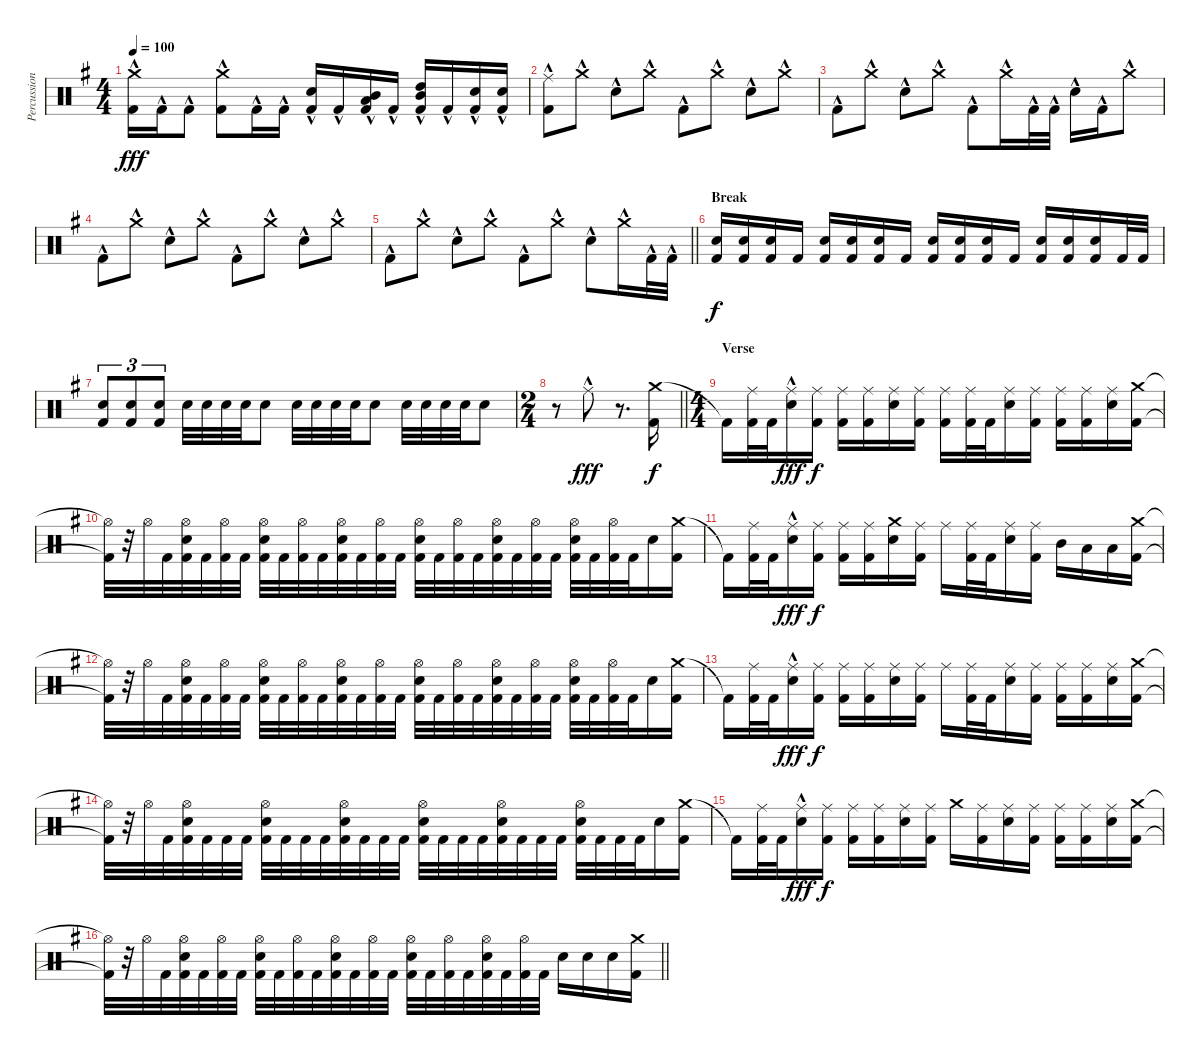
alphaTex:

\track ("Percussion" "Percussion") {instrument percussion}
\staff {score}
\articulation defaults
\ts (4 4)
\tempo 100
\clef neutral
\ks eminor
("Crash medium (hit)"{hac} "Kick (hit) 2"{hac}).16{dy fff} "Kick (hit) 2"{hac}.16 "Kick (hit) 2"{hac}.8 ("Crash medium (hit)"{hac} "Kick (hit) 2"{hac}).8 "Kick (hit) 2"{hac}.16 "Kick (hit) 2"{hac}.16 ("Snare (hit) 2"{hac} "Kick (hit) 2"{hac}).16 "Kick (hit) 2"{hac}.16 ("Mid Tom (hit)"{hac} "Low Tom (hit)"{hac} "Kick (hit) 2"{hac}).16 "Kick (hit) 2"{hac}.16 ("High Tom (hit)"{hac} "Mid Tom (hit)"{hac} "Kick (hit) 2"{hac}).16 "Kick (hit) 2"{hac}.16 ("Snare (hit) 2"{hac} "Kick (hit) 2"{hac}).16 ("Snare (hit) 2"{hac} "Kick (hit) 2"{hac}).16 |
("Ride (middle)"{hac} "Kick (hit) 2"{hac}).8 "Crash medium (hit)"{hac}.8 "Snare (hit) 2"{hac}.8 "Crash medium (hit)"{hac}.8 "Kick (hit) 2"{hac}.8 "Crash medium (hit)"{hac}.8 "Snare (hit) 2"{hac}.8 "Crash medium (hit)"{hac}.8 |
"Kick (hit) 2"{hac}.8 "Crash medium (hit)"{hac}.8 "Snare (hit) 2"{hac}.8 "Crash medium (hit)"{hac}.8 "Kick (hit) 2"{hac}.8 "Crash medium (hit)"{hac}.16 "Kick (hit) 2"{hac}.32 "Kick (hit) 2"{hac}.32 "Snare (hit) 2"{hac}.16 "Kick (hit) 2"{hac}.16 "Crash medium (hit)"{hac}.8 |
"Kick (hit) 2"{hac}.8 "Crash medium (hit)"{hac}.8 "Snare (hit) 2"{hac}.8 "Crash medium (hit)"{hac}.8 "Kick (hit) 2"{hac}.8 "Crash medium (hit)"{hac}.8 "Snare (hit) 2"{hac}.8 "Crash medium (hit)"{hac}.8 |
\barLineRight lightlight "Kick (hit) 2"{hac}.8 "Crash medium (hit)"{hac}.8 "Snare (hit) 2"{hac}.8 "Crash medium (hit)"{hac}.8 "Kick (hit) 2"{hac}.8 "Crash medium (hit)"{hac}.8 "Snare (hit) 2"{hac}.8 "Crash medium (hit)"{hac}.16 "Kick (hit) 2"{hac}.32 "Kick (hit) 2"{hac}.32
|
\section ("" "Break")
("Snare (hit) 2" "Kick (hit) 2").16{dy f} ("Snare (hit) 2" "Kick (hit) 2").16 ("Snare (hit) 2" "Kick (hit) 2").16 "Kick (hit) 2".16 ("Snare (hit) 2" "Kick (hit) 2").16 ("Snare (hit) 2" "Kick (hit) 2").16 ("Snare (hit) 2" "Kick (hit) 2").16 "Kick (hit) 2".16 ("Snare (hit) 2" "Kick (hit) 2").16 ("Snare (hit) 2" "Kick (hit) 2").16 ("Snare (hit) 2" "Kick (hit) 2").16 "Kick (hit) 2".16 ("Snare (hit) 2" "Kick (hit) 2").16 ("Snare (hit) 2" "Kick (hit) 2").16 ("Snare (hit) 2" "Kick (hit) 2").16 "Kick (hit) 2".32 "Kick (hit) 2".32 |
("Snare (hit) 2" "Kick (hit) 2").8{tu (3 2)} ("Snare (hit) 2" "Kick (hit) 2").8{tu (3 2)} ("Snare (hit) 2" "Kick (hit) 2").8{tu (3 2)} "Snare (hit) 2".32 "Snare (hit) 2".32 "Snare (hit) 2".32 "Snare (hit) 2".32 "Snare (hit) 2".8 "Snare (hit) 2".32 "Snare (hit) 2".32 "Snare (hit) 2".32 "Snare (hit) 2".32 "Snare (hit) 2".8 "Snare (hit) 2".32 "Snare (hit) 2".32 "Snare (hit) 2".32 "Snare (hit) 2".32 "Snare (hit) 2".8 |
\ts (2 4)
\barLineRight lightlight
r.8 "Ride (middle)"{hac}.8{dy fff} r.8{d} ("Crash medium (hit)" "Kick (hit) 2").16{dy f} |
\ts (4 4)
\section ("" "Verse")
"Kick (hit) 2"{t}.16 ("Ride (middle)" "Kick (hit) 2").32 "Kick (hit) 2".32 ("Ride (middle)"{hac} "Snare (hit) 2").16{dy fff} ("Ride (middle)" "Kick (hit) 2").16{dy f} ("Ride (middle)" "Kick (hit) 2").16 ("Ride (middle)" "Kick (hit) 2").16 ("Ride (middle)" "Snare (hit) 2").16 ("Ride (middle)" "Kick (hit) 2").16 ("Ride (middle)" "Kick (hit) 2").16 ("Ride (middle)" "Kick (hit) 2").32 "Kick (hit) 2".32 ("Ride (middle)" "Snare (hit) 2").16 ("Ride (middle)" "Kick (hit) 2").16 ("Ride (middle)" "Kick (hit) 2").16 ("Ride (middle)" "Kick (hit) 2").16 ("Ride (middle)" "Snare (hit) 2").16 ("Crash medium (hit)" "Kick (hit) 2").16 |
("Hi-Hat (open)"{t} "Kick (hit) 2"{t}).32 r.32 "Hi-Hat (open)".32 "Kick (hit) 2".32 ("Hi-Hat (open)" "Snare (hit) 2" "Kick (hit) 2").32 "Kick (hit) 2".32 ("Hi-Hat (open)" "Kick (hit) 2").32 "Kick (hit) 2".32 ("Hi-Hat (open)" "Snare (hit) 2" "Kick (hit) 2").32 "Kick (hit) 2".32 ("Hi-Hat (open)" "Kick (hit) 2").32 "Kick (hit) 2".32 ("Hi-Hat (open)" "Snare (hit) 2" "Kick (hit) 2").32 "Kick (hit) 2".32 ("Hi-Hat (open)" "Kick (hit) 2").32 "Kick (hit) 2".32 ("Hi-Hat (open)" "Snare (hit) 2" "Kick (hit) 2").32 "Kick (hit) 2".32 ("Hi-Hat (open)" "Kick (hit) 2").32 "Kick (hit) 2".32 ("Hi-Hat (open)" "Snare (hit) 2" "Kick (hit) 2").32 "Kick (hit) 2".32 ("Hi-Hat (open)" "Kick (hit) 2").32 "Kick (hit) 2".32 ("Hi-Hat (open)" "Snare (hit) 2" "Kick (hit) 2").32 "Kick (hit) 2".32 ("Hi-Hat (open)" "Kick (hit) 2").32 "Kick (hit) 2".32 "Snare (hit) 2".16 ("Crash medium (hit)" "Kick (hit) 2").16 |
"Kick (hit) 2"{t}.16 ("Ride (middle)" "Kick (hit) 2").32 "Kick (hit) 2".32 ("Ride (middle)"{hac} "Snare (hit) 2").16{dy fff} ("Ride (middle)" "Kick (hit) 2").16{dy f} ("Ride (middle)" "Kick (hit) 2").16 ("Ride (middle)" "Kick (hit) 2").16 ("Crash medium (hit)" "Snare (hit) 2").16 ("Ride (middle)" "Kick (hit) 2").16 "Ride (middle)".16 ("Ride (middle)" "Kick (hit) 2").32 "Kick (hit) 2".32 ("Ride (middle)" "Snare (hit) 2").16 ("Ride (middle)" "Kick (hit) 2").16 "Mid Tom (hit)".16 "Low Tom (hit)".16 "Low Tom (hit)".16 ("Crash medium (hit)" "Kick (hit) 2").16 |
("Hi-Hat (open)"{t} "Kick (hit) 2"{t}).32 r.32 "Hi-Hat (open)".32 "Kick (hit) 2".32 ("Hi-Hat (open)" "Snare (hit) 2" "Kick (hit) 2").32 "Kick (hit) 2".32 ("Hi-Hat (open)" "Kick (hit) 2").32 "Kick (hit) 2".32 ("Hi-Hat (open)" "Snare (hit) 2" "Kick (hit) 2").32 "Kick (hit) 2".32 ("Hi-Hat (open)" "Kick (hit) 2").32 "Kick (hit) 2".32 ("Hi-Hat (open)" "Snare (hit) 2" "Kick (hit) 2").32 "Kick (hit) 2".32 ("Hi-Hat (open)" "Kick (hit) 2").32 "Kick (hit) 2".32 ("Hi-Hat (open)" "Snare (hit) 2" "Kick (hit) 2").32 "Kick (hit) 2".32 ("Hi-Hat (open)" "Kick (hit) 2").32 "Kick (hit) 2".32 ("Hi-Hat (open)" "Snare (hit) 2" "Kick (hit) 2").32 "Kick (hit) 2".32 ("Hi-Hat (open)" "Kick (hit) 2").32 "Kick (hit) 2".32 ("Hi-Hat (open)" "Snare (hit) 2" "Kick (hit) 2").32 "Kick (hit) 2".32 ("Hi-Hat (open)" "Kick (hit) 2").32 "Kick (hit) 2".32 "Snare (hit) 2".16 ("Crash medium (hit)" "Kick (hit) 2").16 |
"Kick (hit) 2"{t}.16 ("Ride (middle)" "Kick (hit) 2").32 "Kick (hit) 2".32 ("Ride (middle)"{hac} "Snare (hit) 2").16{dy fff} ("Ride (middle)" "Kick (hit) 2").16{dy f} ("Ride (middle)" "Kick (hit) 2").16 ("Ride (middle)" "Kick (hit) 2").16 ("Ride (middle)" "Snare (hit) 2").16 ("Ride (middle)" "Kick (hit) 2").16 "Ride (middle)".16 ("Ride (middle)" "Kick (hit) 2").32 "Kick (hit) 2".32 ("Ride (middle)" "Snare (hit) 2").16 ("Ride (middle)" "Kick (hit) 2").16 ("Ride (middle)" "Kick (hit) 2").16 ("Ride (middle)" "Kick (hit) 2").16 ("Ride (middle)" "Snare (hit) 2").16 ("Crash medium (hit)" "Kick (hit) 2").16 |
("Hi-Hat (open)"{t} "Kick (hit) 2"{t}).32 r.32 "Hi-Hat (open)".32 "Kick (hit) 2".32 ("Hi-Hat (open)" "Snare (hit) 2" "Kick (hit) 2").32 "Kick (hit) 2".32 "Kick (hit) 2".32 "Kick (hit) 2".32 ("Hi-Hat (open)" "Snare (hit) 2" "Kick (hit) 2").32 "Kick (hit) 2".32 "Kick (hit) 2".32 "Kick (hit) 2".32 ("Hi-Hat (open)" "Snare (hit) 2" "Kick (hit) 2").32 "Kick (hit) 2".32 "Kick (hit) 2".32 "Kick (hit) 2".32 ("Hi-Hat (open)" "Snare (hit) 2" "Kick (hit) 2").32 "Kick (hit) 2".32 "Kick (hit) 2".32 "Kick (hit) 2".32 ("Hi-Hat (open)" "Snare (hit) 2" "Kick (hit) 2").32 "Kick (hit) 2".32 "Kick (hit) 2".32 "Kick (hit) 2".32 ("Hi-Hat (open)" "Snare (hit) 2" "Kick (hit) 2").32 "Kick (hit) 2".32 "Kick (hit) 2".32 "Kick (hit) 2".32 "Snare (hit) 2".16 ("Crash medium (hit)" "Kick (hit) 2").16 |
"Kick (hit) 2"{t}.16 ("Ride (middle)" "Kick (hit) 2").32 "Kick (hit) 2".32 ("Ride (middle)"{hac} "Snare (hit) 2").16{dy fff} ("Ride (middle)" "Kick (hit) 2").16{dy f} ("Ride (middle)" "Kick (hit) 2").16 ("Ride (middle)" "Kick (hit) 2").16 ("Ride (middle)" "Snare (hit) 2").16 ("Ride (middle)" "Kick (hit) 2").16 "Crash medium (hit)".16 ("Ride (middle)" "Kick (hit) 2").16 ("Ride (middle)" "Snare (hit) 2").16 ("Ride (middle)" "Kick (hit) 2").16 ("Ride (middle)" "Kick (hit) 2").16 ("Ride (middle)" "Kick (hit) 2").16 ("Ride (middle)" "Snare (hit) 2").16 ("Crash medium (hit)" "Kick (hit) 2").16 |
\barLineRight lightlight
("Hi-Hat (open)"{t} "Kick (hit) 2"{t}).32 r.32 "Hi-Hat (open)".32 "Kick (hit) 2".32 ("Hi-Hat (open)" "Snare (hit) 2" "Kick (hit) 2").32 "Kick (hit) 2".32 ("Hi-Hat (open)" "Kick (hit) 2").32 "Kick (hit) 2".32 ("Hi-Hat (open)" "Snare (hit) 2" "Kick (hit) 2").32 "Kick (hit) 2".32 ("Hi-Hat (open)" "Kick (hit) 2").32 "Kick (hit) 2".32 ("Hi-Hat (open)" "Snare (hit) 2" "Kick (hit) 2").32 "Kick (hit) 2".32 ("Hi-Hat (open)" "Kick (hit) 2").32 "Kick (hit) 2".32 ("Hi-Hat (open)" "Snare (hit) 2" "Kick (hit) 2").32 "Kick (hit) 2".32 ("Hi-Hat (open)" "Kick (hit) 2").32 "Kick (hit) 2".32 ("Hi-Hat (open)" "Snare (hit) 2" "Kick (hit) 2").32 "Kick (hit) 2".32 ("Hi-Hat (open)" "Kick (hit) 2").32 "Kick (hit) 2".32 "Snare (hit) 2".16 "Snare (hit) 2".16 "Snare (hit) 2".16 ("Crash medium (hit)" "Kick (hit) 2").16
